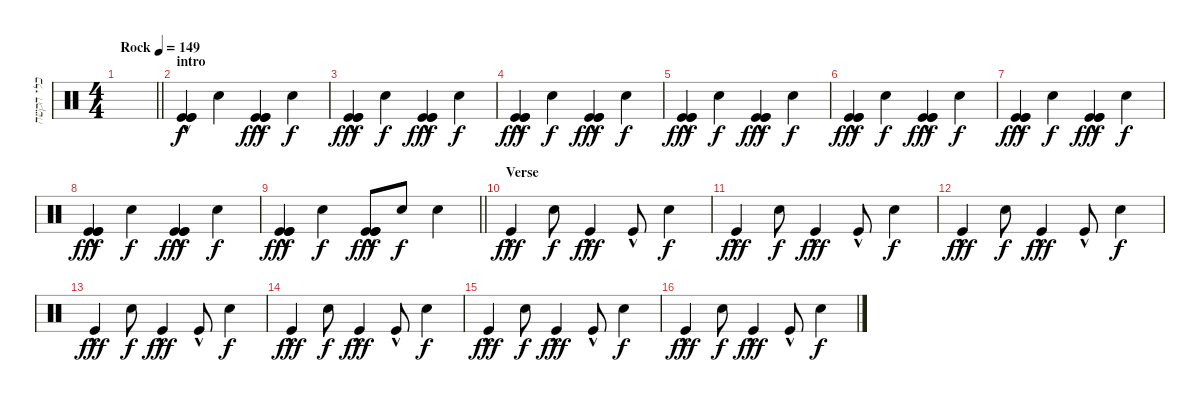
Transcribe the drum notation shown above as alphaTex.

\track ("כלי הקשה" "כלי הקשה") {instrument percussion}
\staff {score}
\articulation defaults
\ts (4 4)
\tempo (149 "Rock")
\clef neutral
\barLineRight lightlight
\ks c
|
\section ("" "intro")
("Kick (hit)"{hac} "Kick (hit)"{hac} "Kick (hit)"{hac}).4 "Electric Snare (hit)".4{dy f} ("Kick (hit)"{hac} "Kick (hit)"{hac} "Kick (hit)"{hac}).4{dy fff} "Electric Snare (hit)".4{dy f} |
("Kick (hit)"{hac} "Kick (hit)"{hac} "Kick (hit)"{hac}).4{dy fff} "Electric Snare (hit)".4{dy f} ("Kick (hit)"{hac} "Kick (hit)"{hac} "Kick (hit)"{hac}).4{dy fff} "Electric Snare (hit)".4{dy f} |
("Kick (hit)"{hac} "Kick (hit)"{hac} "Kick (hit)"{hac}).4{dy fff} "Electric Snare (hit)".4{dy f} ("Kick (hit)"{hac} "Kick (hit)"{hac} "Kick (hit)"{hac}).4{dy fff} "Electric Snare (hit)".4{dy f} |
("Kick (hit)"{hac} "Kick (hit)"{hac} "Kick (hit)"{hac}).4{dy fff} "Electric Snare (hit)".4{dy f} ("Kick (hit)"{hac} "Kick (hit)"{hac} "Kick (hit)"{hac}).4{dy fff} "Electric Snare (hit)".4{dy f} |
("Kick (hit)"{hac} "Kick (hit)"{hac} "Kick (hit)"{hac}).4{dy fff} "Electric Snare (hit)".4{dy f} ("Kick (hit)"{hac} "Kick (hit)"{hac} "Kick (hit)"{hac}).4{dy fff} "Electric Snare (hit)".4{dy f} |
("Kick (hit)"{hac} "Kick (hit)"{hac} "Kick (hit)"{hac}).4{dy fff} "Electric Snare (hit)".4{dy f} ("Kick (hit)"{hac} "Kick (hit)"{hac} "Kick (hit)"{hac}).4{dy fff} "Electric Snare (hit)".4{dy f} |
("Kick (hit)"{hac} "Kick (hit)"{hac} "Kick (hit)"{hac}).4{dy fff} "Electric Snare (hit)".4{dy f} ("Kick (hit)"{hac} "Kick (hit)"{hac} "Kick (hit)"{hac}).4{dy fff} "Electric Snare (hit)".4{dy f} |
\barLineRight lightlight
("Kick (hit)"{hac} "Kick (hit)"{hac} "Kick (hit)"{hac}).4{dy fff} "Electric Snare (hit)".4{dy f} ("Kick (hit)"{hac} "Kick (hit)"{hac} "Kick (hit)"{hac}).8{dy fff} "Electric Snare (hit)".8{dy f} "Electric Snare (hit)".4 |
\section ("" "Verse")
"Kick (hit)"{hac}.4{dy fff} "Electric Snare (hit)".8{dy f} "Kick (hit)"{hac}.4{dy fff} "Kick (hit)"{hac}.8 "Electric Snare (hit)".4{dy f} |
"Kick (hit)"{hac}.4{dy fff} "Electric Snare (hit)".8{dy f} "Kick (hit)"{hac}.4{dy fff} "Kick (hit)"{hac}.8 "Electric Snare (hit)".4{dy f} |
"Kick (hit)"{hac}.4{dy fff} "Electric Snare (hit)".8{dy f} "Kick (hit)"{hac}.4{dy fff} "Kick (hit)"{hac}.8 "Electric Snare (hit)".4{dy f} |
"Kick (hit)"{hac}.4{dy fff} "Electric Snare (hit)".8{dy f} "Kick (hit)"{hac}.4{dy fff} "Kick (hit)"{hac}.8 "Electric Snare (hit)".4{dy f} |
"Kick (hit)"{hac}.4{dy fff} "Electric Snare (hit)".8{dy f} "Kick (hit)"{hac}.4{dy fff} "Kick (hit)"{hac}.8 "Electric Snare (hit)".4{dy f} |
"Kick (hit)"{hac}.4{dy fff} "Electric Snare (hit)".8{dy f} "Kick (hit)"{hac}.4{dy fff} "Kick (hit)"{hac}.8 "Electric Snare (hit)".4{dy f} |
"Kick (hit)"{hac}.4{dy fff} "Electric Snare (hit)".8{dy f} "Kick (hit)"{hac}.4{dy fff} "Kick (hit)"{hac}.8 "Electric Snare (hit)".4{dy f}
